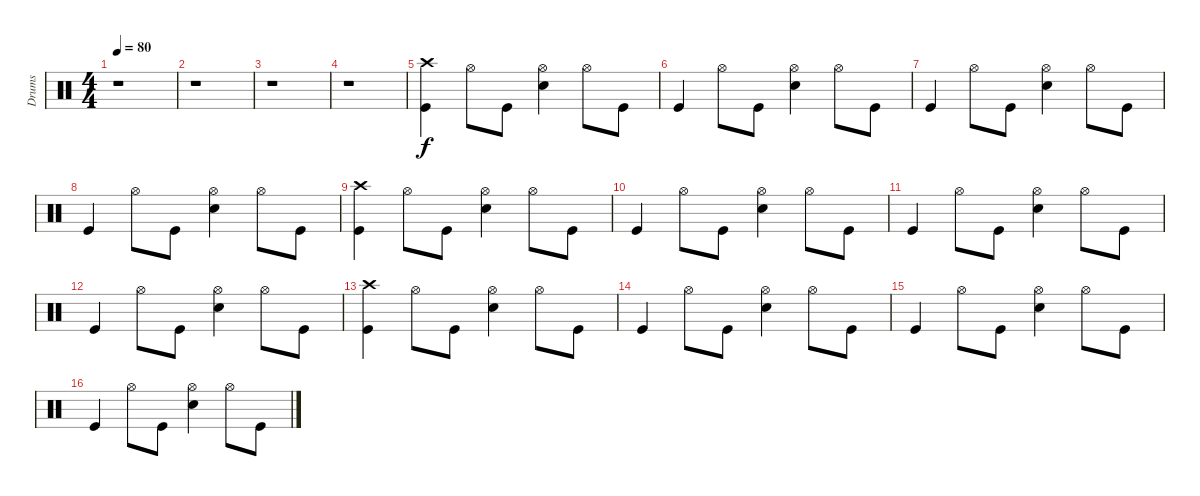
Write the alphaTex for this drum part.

\track ("Drums" "Drums") {instrument percussion}
\staff {score}
\articulation defaults
\ts (4 4)
\tempo 80
\clef neutral
\ks c
r.1{dy f} |
r.1 |
r.1 |
r.1 |
("Crash high (hit)" "Kick (hit)").4 "Hi-Hat (open)".8 "Kick (hit)".8 ("Hi-Hat (open)" "Snare (hit) 2").4 "Hi-Hat (open)".8 "Kick (hit)".8 |
"Kick (hit)".4 "Hi-Hat (open)".8 "Kick (hit)".8 ("Hi-Hat (open)" "Snare (hit) 2").4 "Hi-Hat (open)".8 "Kick (hit)".8 |
"Kick (hit)".4 "Hi-Hat (open)".8 "Kick (hit)".8 ("Hi-Hat (open)" "Snare (hit) 2").4 "Hi-Hat (open)".8 "Kick (hit)".8 |
"Kick (hit)".4 "Hi-Hat (open)".8 "Kick (hit)".8 ("Hi-Hat (open)" "Snare (hit) 2").4 "Hi-Hat (open)".8 "Kick (hit)".8 |
("Crash high (hit)" "Kick (hit)").4 "Hi-Hat (open)".8 "Kick (hit)".8 ("Hi-Hat (open)" "Snare (hit) 2").4 "Hi-Hat (open)".8 "Kick (hit)".8 |
"Kick (hit)".4 "Hi-Hat (open)".8 "Kick (hit)".8 ("Hi-Hat (open)" "Snare (hit) 2").4 "Hi-Hat (open)".8 "Kick (hit)".8 |
"Kick (hit)".4 "Hi-Hat (open)".8 "Kick (hit)".8 ("Hi-Hat (open)" "Snare (hit) 2").4 "Hi-Hat (open)".8 "Kick (hit)".8 |
"Kick (hit)".4 "Hi-Hat (open)".8 "Kick (hit)".8 ("Hi-Hat (open)" "Snare (hit) 2").4 "Hi-Hat (open)".8 "Kick (hit)".8 |
("Crash high (hit)" "Kick (hit)").4 "Hi-Hat (open)".8 "Kick (hit)".8 ("Hi-Hat (open)" "Snare (hit) 2").4 "Hi-Hat (open)".8 "Kick (hit)".8 |
"Kick (hit)".4 "Hi-Hat (open)".8 "Kick (hit)".8 ("Hi-Hat (open)" "Snare (hit) 2").4 "Hi-Hat (open)".8 "Kick (hit)".8 |
"Kick (hit)".4 "Hi-Hat (open)".8 "Kick (hit)".8 ("Hi-Hat (open)" "Snare (hit) 2").4 "Hi-Hat (open)".8 "Kick (hit)".8 |
"Kick (hit)".4 "Hi-Hat (open)".8 "Kick (hit)".8 ("Hi-Hat (open)" "Snare (hit) 2").4 "Hi-Hat (open)".8 "Kick (hit)".8
